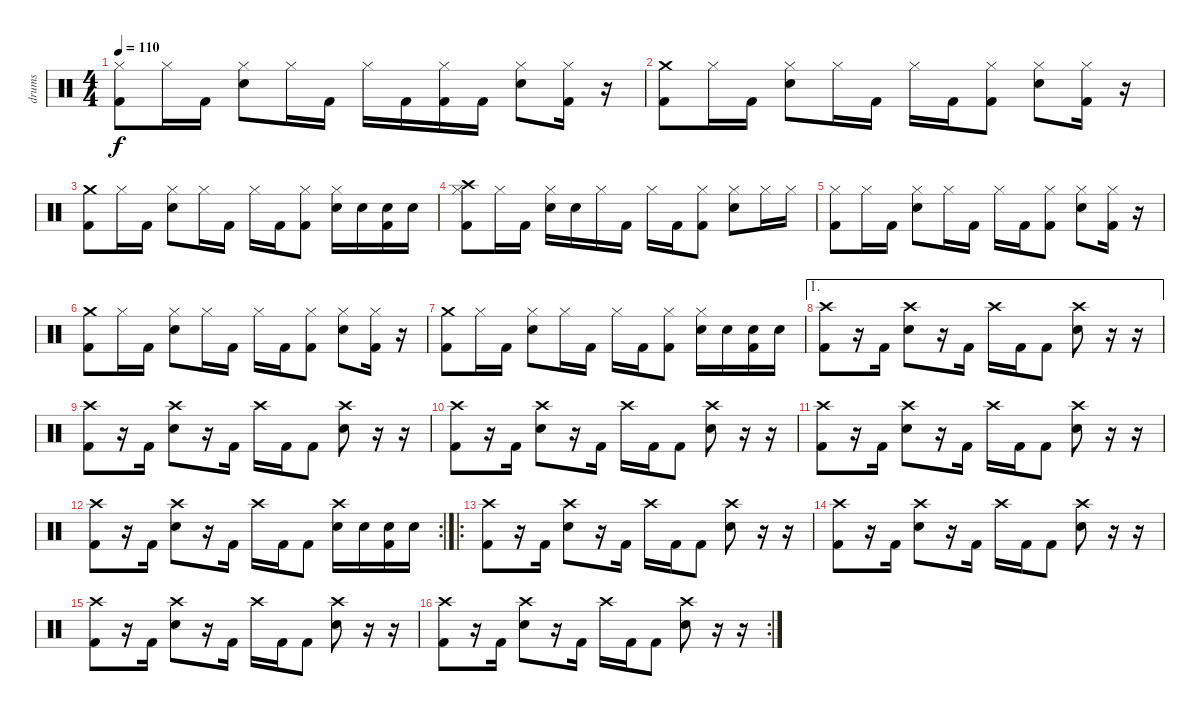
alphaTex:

\track ("drums" "drums") {instrument percussion}
\staff {score}
\articulation defaults
\ts (4 4)
\tempo 110
\clef neutral
\ks c
("Hi-Hat (closed)" "Kick (hit) 2").8{dy f} "Hi-Hat (closed)".16 "Kick (hit) 2".16 ("Hi-Hat (closed)" "Electric Snare (hit)").8 "Hi-Hat (closed)".16 "Kick (hit) 2".16 "Hi-Hat (closed)".16 "Kick (hit) 2".16 ("Hi-Hat (closed)" "Kick (hit) 2").16 "Kick (hit) 2".16 ("Hi-Hat (closed)" "Electric Snare (hit)").8 ("Hi-Hat (closed)" "Kick (hit) 2").16 r.16 |
("Crash medium (hit)" "Kick (hit) 2").8 "Hi-Hat (closed)".16 "Kick (hit) 2".16 ("Hi-Hat (closed)" "Electric Snare (hit)").8 "Hi-Hat (closed)".16 "Kick (hit) 2".16 "Hi-Hat (closed)".16 "Kick (hit) 2".16 ("Hi-Hat (closed)" "Kick (hit) 2").8 ("Hi-Hat (closed)" "Electric Snare (hit)").8 ("Hi-Hat (closed)" "Kick (hit) 2").16 r.16 |
("Crash medium (hit)" "Kick (hit) 2").8 "Hi-Hat (closed)".16 "Kick (hit) 2".16 ("Hi-Hat (closed)" "Electric Snare (hit)").8 "Hi-Hat (closed)".16 "Kick (hit) 2".16 "Hi-Hat (closed)".16 "Kick (hit) 2".16 ("Hi-Hat (closed)" "Kick (hit) 2").8 ("Hi-Hat (closed)" "Electric Snare (hit)").16 "Electric Snare (hit)".16 ("Electric Snare (hit)" "Kick (hit) 2").16 "Electric Snare (hit)".16 |
("Crash high (hit)" "Hi-Hat (closed)" "Kick (hit) 2").8 "Hi-Hat (closed)".16 "Kick (hit) 2".16 ("Hi-Hat (closed)" "Electric Snare (hit)").16 "Electric Snare (hit)".16 "Hi-Hat (closed)".16 "Kick (hit) 2".16 "Hi-Hat (closed)".16 "Kick (hit) 2".16 ("Hi-Hat (closed)" "Kick (hit) 2").8 ("Hi-Hat (closed)" "Electric Snare (hit)").8 "Hi-Hat (closed)".16 "Hi-Hat (closed)".16 |
("Hi-Hat (closed)" "Kick (hit) 2").8 "Hi-Hat (closed)".16 "Kick (hit) 2".16 ("Hi-Hat (closed)" "Electric Snare (hit)").8 "Hi-Hat (closed)".16 "Kick (hit) 2".16 "Hi-Hat (closed)".16 "Kick (hit) 2".16 ("Hi-Hat (closed)" "Kick (hit) 2").8 ("Hi-Hat (closed)" "Electric Snare (hit)").8 ("Hi-Hat (closed)" "Kick (hit) 2").16 r.16 |
("Crash medium (hit)" "Kick (hit) 2").8 "Hi-Hat (closed)".16 "Kick (hit) 2".16 ("Hi-Hat (closed)" "Electric Snare (hit)").8 "Hi-Hat (closed)".16 "Kick (hit) 2".16 "Hi-Hat (closed)".16 "Kick (hit) 2".16 ("Hi-Hat (closed)" "Kick (hit) 2").8 ("Hi-Hat (closed)" "Electric Snare (hit)").8 ("Hi-Hat (closed)" "Kick (hit) 2").16 r.16 |
("Crash medium (hit)" "Kick (hit) 2").8 "Hi-Hat (closed)".16 "Kick (hit) 2".16 ("Hi-Hat (closed)" "Electric Snare (hit)").8 "Hi-Hat (closed)".16 "Kick (hit) 2".16 "Hi-Hat (closed)".16 "Kick (hit) 2".16 ("Hi-Hat (closed)" "Kick (hit) 2").8 ("Hi-Hat (closed)" "Electric Snare (hit)").16 "Electric Snare (hit)".16 ("Electric Snare (hit)" "Kick (hit) 2").16 "Electric Snare (hit)".16 |
\ae 1
("Crash high (hit)" "Kick (hit) 2").8 r.16 "Kick (hit) 2".16 ("Crash high (hit)" "Electric Snare (hit)").8 r.16 "Kick (hit) 2".16 "Crash high (hit)".16 "Kick (hit) 2".16 "Kick (hit) 2".8 ("Crash high (hit)" "Electric Snare (hit)").8 r.16 r.16 |
("Crash high (hit)" "Kick (hit) 2").8 r.16 "Kick (hit) 2".16 ("Crash high (hit)" "Electric Snare (hit)").8 r.16 "Kick (hit) 2".16 "Crash high (hit)".16 "Kick (hit) 2".16 "Kick (hit) 2".8 ("Crash high (hit)" "Electric Snare (hit)").8 r.16 r.16 |
("Crash high (hit)" "Kick (hit) 2").8 r.16 "Kick (hit) 2".16 ("Crash high (hit)" "Electric Snare (hit)").8 r.16 "Kick (hit) 2".16 "Crash high (hit)".16 "Kick (hit) 2".16 "Kick (hit) 2".8 ("Crash high (hit)" "Electric Snare (hit)").8 r.16 r.16 |
("Crash high (hit)" "Kick (hit) 2").8 r.16 "Kick (hit) 2".16 ("Crash high (hit)" "Electric Snare (hit)").8 r.16 "Kick (hit) 2".16 "Crash high (hit)".16 "Kick (hit) 2".16 "Kick (hit) 2".8 ("Crash high (hit)" "Electric Snare (hit)").8 r.16 r.16 |
\rc 2
("Crash high (hit)" "Kick (hit) 2").8 r.16 "Kick (hit) 2".16 ("Crash high (hit)" "Electric Snare (hit)").8 r.16 "Kick (hit) 2".16 "Crash high (hit)".16 "Kick (hit) 2".16 "Kick (hit) 2".8 ("Crash high (hit)" "Electric Snare (hit)").16 "Electric Snare (hit)".16 ("Electric Snare (hit)" "Kick (hit) 2").16 "Electric Snare (hit)".16 |
\ro
("Crash high (hit)" "Kick (hit) 2").8 r.16 "Kick (hit) 2".16 ("Crash high (hit)" "Electric Snare (hit)").8 r.16 "Kick (hit) 2".16 "Crash high (hit)".16 "Kick (hit) 2".16 "Kick (hit) 2".8 ("Crash high (hit)" "Electric Snare (hit)").8 r.16 r.16 |
("Crash high (hit)" "Kick (hit) 2").8 r.16 "Kick (hit) 2".16 ("Crash high (hit)" "Electric Snare (hit)").8 r.16 "Kick (hit) 2".16 "Crash high (hit)".16 "Kick (hit) 2".16 "Kick (hit) 2".8 ("Crash high (hit)" "Electric Snare (hit)").8 r.16 r.16 |
("Crash high (hit)" "Kick (hit) 2").8 r.16 "Kick (hit) 2".16 ("Crash high (hit)" "Electric Snare (hit)").8 r.16 "Kick (hit) 2".16 "Crash high (hit)".16 "Kick (hit) 2".16 "Kick (hit) 2".8 ("Crash high (hit)" "Electric Snare (hit)").8 r.16 r.16 |
\rc 2
("Crash high (hit)" "Kick (hit) 2").8 r.16 "Kick (hit) 2".16 ("Crash high (hit)" "Electric Snare (hit)").8 r.16 "Kick (hit) 2".16 "Crash high (hit)".16 "Kick (hit) 2".16 "Kick (hit) 2".8 ("Crash high (hit)" "Electric Snare (hit)").8 r.16 r.16
